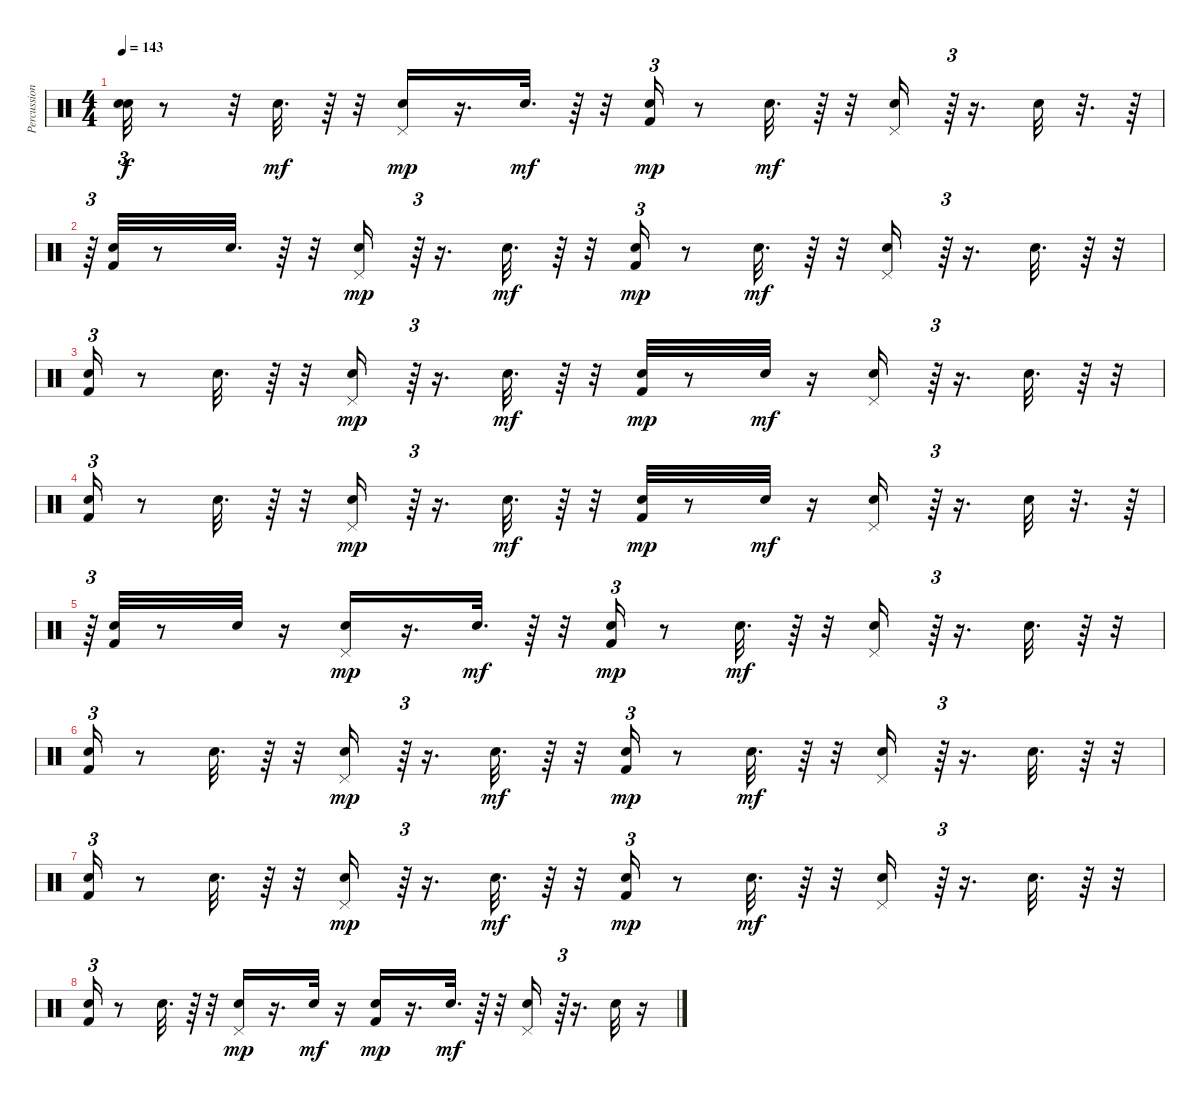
\track ("Percussion" "Percussion") {instrument percussion}
\staff {score}
\articulation defaults
\ts (4 4)
\tempo 143
\clef neutral
\ks c
("Snare (hit)"{t} "Snare (hit)"{t}).32{tu (3 2) dy f} r.8 r.32 "Snare (hit) 2".32{d dy mf} r.64 r.32 ("Hand Clap (hit)" "Pedal Hi-Hat (hit)").16{dy mp} r.16{d} "Hand Clap (hit)".32{d dy mf} r.64 r.32 ("Kick (hit) 2" "Snare (hit) 2").16{tu (3 2) dy mp} r.8 "Snare (hit) 2".32{d dy mf} r.64 r.32 ("Hand Clap (hit)" "Pedal Hi-Hat (hit)").16 r.64{tu (3 2)} r.16{d} "Hand Clap (hit)".32 r.32{d} r.64 |
r.64{tu (3 2)} ("Kick (hit) 2" "Snare (hit) 2").32 r.8 "Snare (hit) 2".32{d} r.64 r.32 ("Hand Clap (hit)" "Pedal Hi-Hat (hit)").16{dy mp} r.64{tu (3 2)} r.16{d} "Hand Clap (hit)".32{d dy mf} r.64 r.32 ("Kick (hit) 2" "Snare (hit) 2").16{tu (3 2) dy mp} r.8 "Snare (hit) 2".32{d dy mf} r.64 r.32 ("Hand Clap (hit)" "Pedal Hi-Hat (hit)").16 r.64{tu (3 2)} r.16{d} "Hand Clap (hit)".32{d} r.64 r.32 |
("Kick (hit) 2" "Snare (hit) 2").16{tu (3 2)} r.8 "Snare (hit) 2".32{d} r.64 r.32 ("Hand Clap (hit)" "Pedal Hi-Hat (hit)").16{dy mp} r.64{tu (3 2)} r.16{d} "Hand Clap (hit)".32{d dy mf} r.64 r.32 ("Kick (hit) 2" "Snare (hit) 2").32{dy mp} r.8 "Snare (hit) 2".32{dy mf} r.16 ("Hand Clap (hit)" "Pedal Hi-Hat (hit)").16 r.64{tu (3 2)} r.16{d} "Hand Clap (hit)".32{d} r.64 r.32 |
("Kick (hit) 2" "Snare (hit) 2").16{tu (3 2)} r.8 "Snare (hit) 2".32{d} r.64 r.32 ("Hand Clap (hit)" "Pedal Hi-Hat (hit)").16{dy mp} r.64{tu (3 2)} r.16{d} "Hand Clap (hit)".32{d dy mf} r.64 r.32 ("Kick (hit) 2" "Snare (hit) 2").32{dy mp} r.8 "Snare (hit) 2".32{dy mf} r.16 ("Hand Clap (hit)" "Pedal Hi-Hat (hit)").16 r.64{tu (3 2)} r.16{d} "Hand Clap (hit)".32 r.32{d} r.64 |
r.64{tu (3 2)} ("Kick (hit) 2" "Snare (hit) 2").32 r.8 "Snare (hit) 2".32 r.16 ("Hand Clap (hit)" "Pedal Hi-Hat (hit)").16{dy mp} r.16{d} "Hand Clap (hit)".32{d dy mf} r.64 r.32 ("Kick (hit) 2" "Snare (hit) 2").16{tu (3 2) dy mp} r.8 "Snare (hit) 2".32{d dy mf} r.64 r.32 ("Hand Clap (hit)" "Pedal Hi-Hat (hit)").16 r.64{tu (3 2)} r.16{d} "Hand Clap (hit)".32{d} r.64 r.32 |
("Kick (hit) 2" "Snare (hit) 2").16{tu (3 2)} r.8 "Snare (hit) 2".32{d} r.64 r.32 ("Hand Clap (hit)" "Pedal Hi-Hat (hit)").16{dy mp} r.64{tu (3 2)} r.16{d} "Hand Clap (hit)".32{d dy mf} r.64 r.32 ("Kick (hit) 2" "Snare (hit) 2").16{tu (3 2) dy mp} r.8 "Snare (hit) 2".32{d dy mf} r.64 r.32 ("Hand Clap (hit)" "Pedal Hi-Hat (hit)").16 r.64{tu (3 2)} r.16{d} "Hand Clap (hit)".32{d} r.64 r.32 |
("Kick (hit) 2" "Snare (hit) 2").16{tu (3 2)} r.8 "Snare (hit) 2".32{d} r.64 r.32 ("Hand Clap (hit)" "Pedal Hi-Hat (hit)").16{dy mp} r.64{tu (3 2)} r.16{d} "Hand Clap (hit)".32{d dy mf} r.64 r.32 ("Kick (hit) 2" "Snare (hit) 2").16{tu (3 2) dy mp} r.8 "Snare (hit) 2".32{d dy mf} r.64 r.32 ("Hand Clap (hit)" "Pedal Hi-Hat (hit)").16 r.64{tu (3 2)} r.16{d} "Hand Clap (hit)".32{d} r.64 r.32 |
("Kick (hit) 2" "Snare (hit) 2").16{tu (3 2)} r.8 "Snare (hit) 2".32{d} r.64 r.32 ("Hand Clap (hit)" "Pedal Hi-Hat (hit)").16{dy mp} r.16{d} "Hand Clap (hit)".32{dy mf} r.16 ("Kick (hit) 2" "Snare (hit) 2").16{dy mp} r.16{d} "Snare (hit) 2".32{d dy mf} r.64 r.32 ("Hand Clap (hit)" "Pedal Hi-Hat (hit)").16 r.64{tu (3 2)} r.16{d} "Hand Clap (hit)".32 r.16
